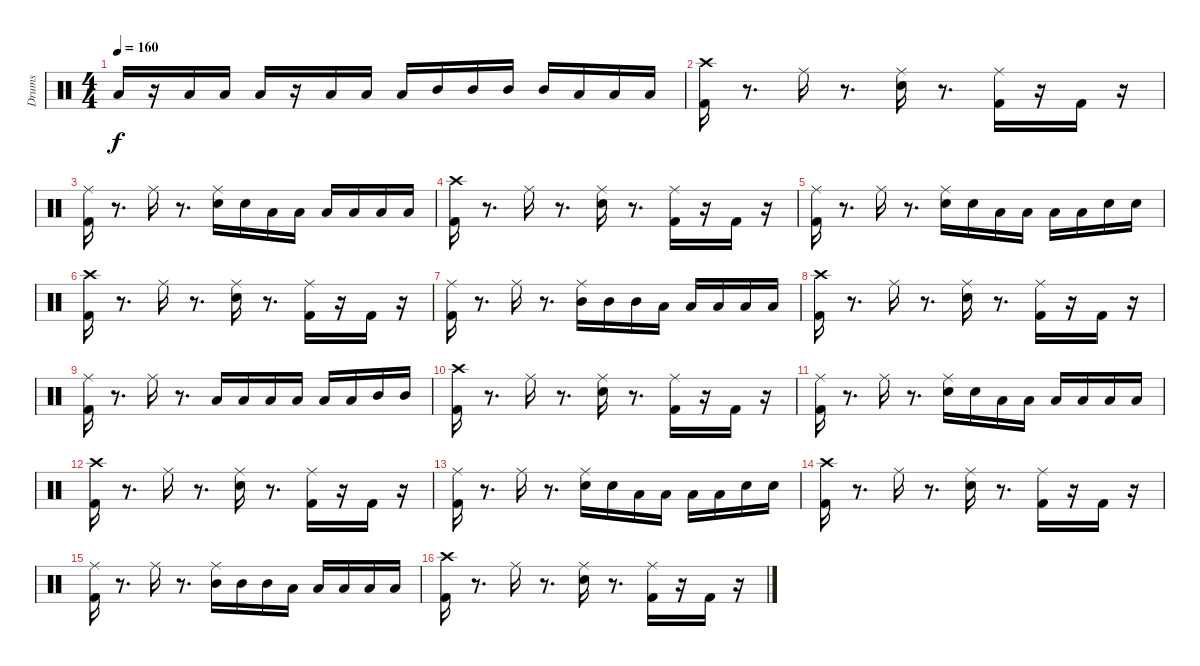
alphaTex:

\track ("Drums               " "Drums     ") {instrument percussion}
\staff {score}
\articulation defaults
\ts (4 4)
\tempo 160
\clef neutral
\ks c "Low Floor Tom (hit)".16{dy f}
r.16 "Low Floor Tom (hit)".16 "Low Floor Tom (hit)".16 "Low Floor Tom (hit)".16 r.16 "Low Tom (hit)".16 "Low Tom (hit)".16 "Low Tom (hit)".16 "Mid Tom (hit)".16 "Mid Tom (hit)".16 "Mid Tom (hit)".16 "Mid Tom (hit)".16 "Low Tom (hit)".16 "Low Tom (hit)".16 "Low Tom (hit)".16 |
("Kick (hit) 2" "Crash high (hit)").16 r.8{d} "Ride (middle)".16 r.8{d} ("Snare (hit) 2" "Ride (middle)").16 r.8{d} ("Kick (hit) 2" "Ride (middle)").16 r.16 "Kick (hit) 2".16 r.16 |
("Kick (hit) 2" "Ride (middle)").16 r.8{d} "Ride (middle)".16 r.8{d} ("Snare (hit) 2" "Ride (middle)").16 "Snare (hit) 2".16 "Low Tom (hit)".16 "Low Tom (hit)".16 "Low Tom (hit)".16 "Low Floor Tom (hit)".16 "Low Floor Tom (hit)".16 "Low Floor Tom (hit)".16 |
("Kick (hit) 2" "Crash high (hit)").16 r.8{d} "Ride (middle)".16 r.8{d} ("Snare (hit) 2" "Ride (middle)").16 r.8{d} ("Kick (hit) 2" "Ride (middle)").16 r.16 "Kick (hit) 2".16 r.16 |
("Kick (hit) 2" "Ride (middle)").16 r.8{d} "Ride (middle)".16 r.8{d} ("Snare (hit) 2" "Ride (middle)").16 "Snare (hit) 2".16 "Low Tom (hit)".16 "Low Tom (hit)".16 "Low Tom (hit)".16 "Low Tom (hit)".16 "Snare (hit) 2".16 "Snare (hit) 2".16 |
("Kick (hit) 2" "Crash high (hit)").16 r.8{d} "Ride (middle)".16 r.8{d} ("Snare (hit) 2" "Ride (middle)").16 r.8{d} ("Kick (hit) 2" "Ride (middle)").16 r.16 "Kick (hit) 2".16 r.16 |
("Kick (hit) 2" "Ride (middle)").16 r.8{d} "Ride (middle)".16 r.8{d} ("Mid Tom (hit)" "Ride (middle)").16 "Mid Tom (hit)".16 "Mid Tom (hit)".16 "Low Tom (hit)".16 "Low Tom (hit)".16 "Low Tom (hit)".16 "Low Floor Tom (hit)".16 "Low Floor Tom (hit)".16 |
("Kick (hit) 2" "Crash high (hit)").16 r.8{d} "Ride (middle)".16 r.8{d} ("Snare (hit) 2" "Ride (middle)").16 r.8{d} ("Kick (hit) 2" "Ride (middle)").16 r.16 "Kick (hit) 2".16 r.16 |
("Kick (hit) 2" "Ride (middle)").16 r.8{d} "Ride (middle)".16 r.8{d} "Low Floor Tom (hit)".16 "Low Floor Tom (hit)".16 "Low Floor Tom (hit)".16 "Low Tom (hit)".16 "Low Tom (hit)".16 "Low Tom (hit)".16 "Mid Tom (hit)".16 "Mid Tom (hit)".16 |
("Kick (hit) 2" "Crash high (hit)").16 r.8{d} "Ride (middle)".16 r.8{d} ("Snare (hit) 2" "Ride (middle)").16 r.8{d} ("Kick (hit) 2" "Ride (middle)").16 r.16 "Kick (hit) 2".16 r.16 |
("Kick (hit) 2" "Ride (middle)").16 r.8{d} "Ride (middle)".16 r.8{d} ("Snare (hit) 2" "Ride (middle)").16 "Snare (hit) 2".16 "Low Tom (hit)".16 "Low Tom (hit)".16 "Low Tom (hit)".16 "Low Floor Tom (hit)".16 "Low Floor Tom (hit)".16 "Low Floor Tom (hit)".16 |
("Kick (hit) 2" "Crash high (hit)").16 r.8{d} "Ride (middle)".16 r.8{d} ("Snare (hit) 2" "Ride (middle)").16 r.8{d} ("Kick (hit) 2" "Ride (middle)").16 r.16 "Kick (hit) 2".16 r.16 |
("Kick (hit) 2" "Ride (middle)").16 r.8{d} "Ride (middle)".16 r.8{d} ("Snare (hit) 2" "Ride (middle)").16 "Snare (hit) 2".16 "Low Tom (hit)".16 "Low Tom (hit)".16 "Low Tom (hit)".16 "Low Tom (hit)".16 "Snare (hit) 2".16 "Snare (hit) 2".16 |
("Kick (hit) 2" "Crash high (hit)").16 r.8{d} "Ride (middle)".16 r.8{d} ("Snare (hit) 2" "Ride (middle)").16 r.8{d} ("Kick (hit) 2" "Ride (middle)").16 r.16 "Kick (hit) 2".16 r.16 |
("Kick (hit) 2" "Ride (middle)").16 r.8{d} "Ride (middle)".16 r.8{d} ("Mid Tom (hit)" "Ride (middle)").16 "Mid Tom (hit)".16 "Mid Tom (hit)".16 "Low Tom (hit)".16 "Low Tom (hit)".16 "Low Tom (hit)".16 "Low Floor Tom (hit)".16 "Low Floor Tom (hit)".16 |
("Kick (hit) 2" "Crash high (hit)").16 r.8{d} "Ride (middle)".16 r.8{d} ("Snare (hit) 2" "Ride (middle)").16 r.8{d} ("Kick (hit) 2" "Ride (middle)").16 r.16 "Kick (hit) 2".16 r.16
